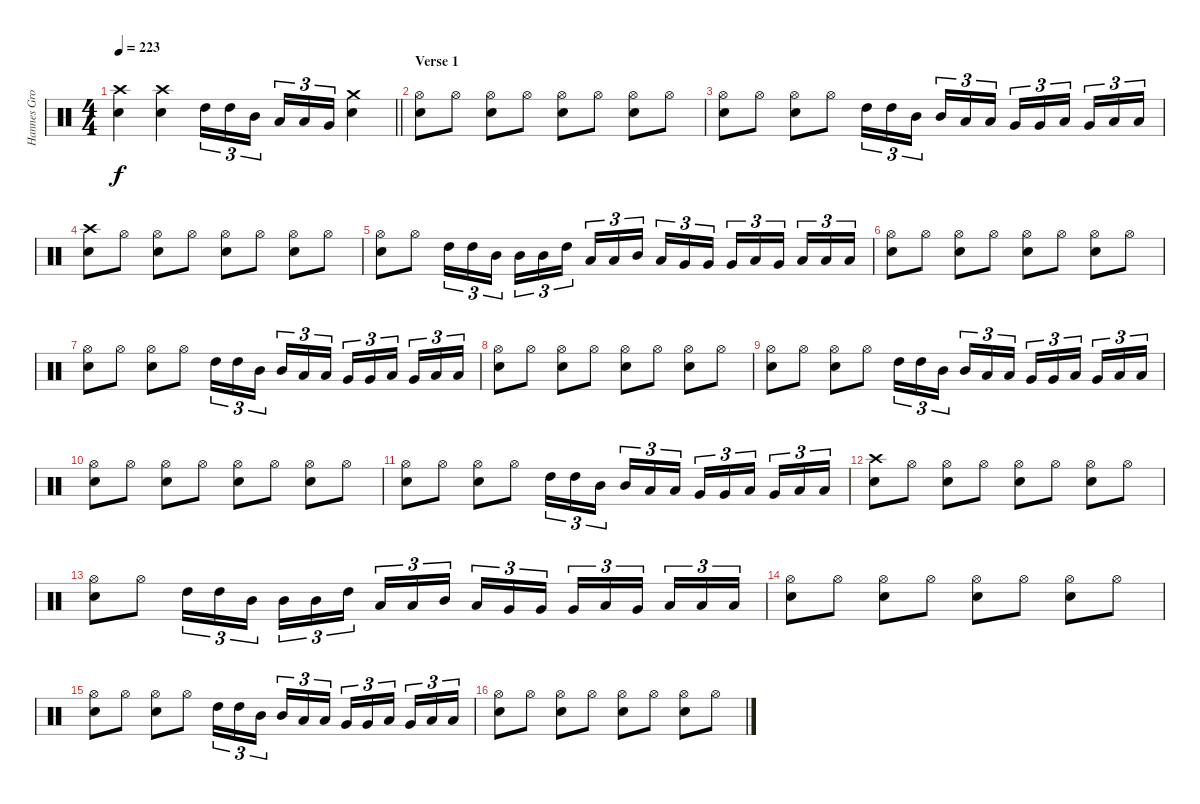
\track ("Hannes Grossmann" "Hannes Gro") {instrument percussion}
\staff {score}
\articulation defaults
\ts (4 4)
\tempo 223
\clef neutral
\barLineRight lightlight
\ks c
("Crash high (hit)" "Electric Snare (hit)").4{dy f} ("Crash high (hit)" "Electric Snare (hit)").4 "High Tom (hit)".16{tu (3 2)} "High Tom (hit)".16{tu (3 2)} "Mid Tom (hit)".16{tu (3 2) beam splitsecondary} "Low Tom (hit)".16{tu (3 2)} "Low Tom (hit)".16{tu (3 2)} "Very Low Tom (hit)".16{tu (3 2)} ("Crash medium (hit)" "Electric Snare (hit)").4 |
\section ("" "Verse 1")
("Hi-Hat (open)" "Electric Snare (hit)").8 "Hi-Hat (open)".8 ("Hi-Hat (open)" "Electric Snare (hit)").8 "Hi-Hat (open)".8 ("Hi-Hat (open)" "Electric Snare (hit)").8 "Hi-Hat (open)".8 ("Hi-Hat (open)" "Electric Snare (hit)").8 "Hi-Hat (open)".8 |
("Hi-Hat (open)" "Electric Snare (hit)").8 "Hi-Hat (open)".8 ("Hi-Hat (open)" "Electric Snare (hit)").8 "Hi-Hat (open)".8 "High Tom (hit)".16{tu (3 2)} "High Tom (hit)".16{tu (3 2)} "Mid Tom (hit)".16{tu (3 2) beam splitsecondary} "Mid Tom (hit)".16{tu (3 2)} "Low Tom (hit)".16{tu (3 2)} "Low Tom (hit)".16{tu (3 2)} "Very Low Tom (hit)".16{tu (3 2)} "Very Low Tom (hit)".16{tu (3 2)} "Low Tom (hit)".16{tu (3 2) beam splitsecondary} "Very Low Tom (hit)".16{tu (3 2)} "Low Floor Tom (hit)".16{tu (3 2)} "Low Floor Tom (hit)".16{tu (3 2)} |
("Crash high (hit)" "Electric Snare (hit)").8 "Hi-Hat (open)".8 ("Hi-Hat (open)" "Electric Snare (hit)").8 "Hi-Hat (open)".8 ("Hi-Hat (open)" "Electric Snare (hit)").8 "Hi-Hat (open)".8 ("Hi-Hat (open)" "Electric Snare (hit)").8 "Hi-Hat (open)".8 |
("Hi-Hat (open)" "Electric Snare (hit)").8 "Hi-Hat (open)".8 "High Tom (hit)".16{tu (3 2)} "High Tom (hit)".16{tu (3 2)} "Mid Tom (hit)".16{tu (3 2) beam splitsecondary} "Mid Tom (hit)".16{tu (3 2)} "Mid Tom (hit)".16{tu (3 2)} "High Tom (hit)".16{tu (3 2)} "Low Tom (hit)".16{tu (3 2)} "Low Tom (hit)".16{tu (3 2)} "Mid Tom (hit)".16{tu (3 2) beam splitsecondary} "Low Tom (hit)".16{tu (3 2)} "Very Low Tom (hit)".16{tu (3 2)} "Very Low Tom (hit)".16{tu (3 2)} "Very Low Tom (hit)".16{tu (3 2)} "Low Tom (hit)".16{tu (3 2)} "Very Low Tom (hit)".16{tu (3 2) beam splitsecondary} "Low Floor Tom (hit)".16{tu (3 2)} "Low Floor Tom (hit)".16{tu (3 2)} "Low Floor Tom (hit)".16{tu (3 2)} |
("Hi-Hat (open)" "Electric Snare (hit)").8 "Hi-Hat (open)".8 ("Hi-Hat (open)" "Electric Snare (hit)").8 "Hi-Hat (open)".8 ("Hi-Hat (open)" "Electric Snare (hit)").8 "Hi-Hat (open)".8 ("Hi-Hat (open)" "Electric Snare (hit)").8 "Hi-Hat (open)".8 |
("Hi-Hat (open)" "Electric Snare (hit)").8 "Hi-Hat (open)".8 ("Hi-Hat (open)" "Electric Snare (hit)").8 "Hi-Hat (open)".8 "High Tom (hit)".16{tu (3 2)} "High Tom (hit)".16{tu (3 2)} "Mid Tom (hit)".16{tu (3 2) beam splitsecondary} "Mid Tom (hit)".16{tu (3 2)} "Low Tom (hit)".16{tu (3 2)} "Low Tom (hit)".16{tu (3 2)} "Very Low Tom (hit)".16{tu (3 2)} "Very Low Tom (hit)".16{tu (3 2)} "Low Tom (hit)".16{tu (3 2) beam splitsecondary} "Very Low Tom (hit)".16{tu (3 2)} "Low Floor Tom (hit)".16{tu (3 2)} "Low Floor Tom (hit)".16{tu (3 2)} |
("Hi-Hat (open)" "Electric Snare (hit)").8 "Hi-Hat (open)".8 ("Hi-Hat (open)" "Electric Snare (hit)").8 "Hi-Hat (open)".8 ("Hi-Hat (open)" "Electric Snare (hit)").8 "Hi-Hat (open)".8 ("Hi-Hat (open)" "Electric Snare (hit)").8 "Hi-Hat (open)".8 |
("Hi-Hat (open)" "Electric Snare (hit)").8 "Hi-Hat (open)".8 ("Hi-Hat (open)" "Electric Snare (hit)").8 "Hi-Hat (open)".8 "High Tom (hit)".16{tu (3 2)} "High Tom (hit)".16{tu (3 2)} "Mid Tom (hit)".16{tu (3 2) beam splitsecondary} "Mid Tom (hit)".16{tu (3 2)} "Low Tom (hit)".16{tu (3 2)} "Low Tom (hit)".16{tu (3 2)} "Very Low Tom (hit)".16{tu (3 2)} "Very Low Tom (hit)".16{tu (3 2)} "Low Tom (hit)".16{tu (3 2) beam splitsecondary} "Very Low Tom (hit)".16{tu (3 2)} "Low Floor Tom (hit)".16{tu (3 2)} "Low Floor Tom (hit)".16{tu (3 2)} |
("Hi-Hat (open)" "Electric Snare (hit)").8 "Hi-Hat (open)".8 ("Hi-Hat (open)" "Electric Snare (hit)").8 "Hi-Hat (open)".8 ("Hi-Hat (open)" "Electric Snare (hit)").8 "Hi-Hat (open)".8 ("Hi-Hat (open)" "Electric Snare (hit)").8 "Hi-Hat (open)".8 |
("Hi-Hat (open)" "Electric Snare (hit)").8 "Hi-Hat (open)".8 ("Hi-Hat (open)" "Electric Snare (hit)").8 "Hi-Hat (open)".8 "High Tom (hit)".16{tu (3 2)} "High Tom (hit)".16{tu (3 2)} "Mid Tom (hit)".16{tu (3 2) beam splitsecondary} "Mid Tom (hit)".16{tu (3 2)} "Low Tom (hit)".16{tu (3 2)} "Low Tom (hit)".16{tu (3 2)} "Very Low Tom (hit)".16{tu (3 2)} "Very Low Tom (hit)".16{tu (3 2)} "Low Tom (hit)".16{tu (3 2) beam splitsecondary} "Very Low Tom (hit)".16{tu (3 2)} "Low Floor Tom (hit)".16{tu (3 2)} "Low Floor Tom (hit)".16{tu (3 2)} |
("Crash high (hit)" "Electric Snare (hit)").8 "Hi-Hat (open)".8 ("Hi-Hat (open)" "Electric Snare (hit)").8 "Hi-Hat (open)".8 ("Hi-Hat (open)" "Electric Snare (hit)").8 "Hi-Hat (open)".8 ("Hi-Hat (open)" "Electric Snare (hit)").8 "Hi-Hat (open)".8 |
("Hi-Hat (open)" "Electric Snare (hit)").8 "Hi-Hat (open)".8 "High Tom (hit)".16{tu (3 2)} "High Tom (hit)".16{tu (3 2)} "Mid Tom (hit)".16{tu (3 2) beam splitsecondary} "Mid Tom (hit)".16{tu (3 2)} "Mid Tom (hit)".16{tu (3 2)} "High Tom (hit)".16{tu (3 2)} "Low Tom (hit)".16{tu (3 2)} "Low Tom (hit)".16{tu (3 2)} "Mid Tom (hit)".16{tu (3 2) beam splitsecondary} "Low Tom (hit)".16{tu (3 2)} "Very Low Tom (hit)".16{tu (3 2)} "Very Low Tom (hit)".16{tu (3 2)} "Very Low Tom (hit)".16{tu (3 2)} "Low Tom (hit)".16{tu (3 2)} "Very Low Tom (hit)".16{tu (3 2) beam splitsecondary} "Low Floor Tom (hit)".16{tu (3 2)} "Low Floor Tom (hit)".16{tu (3 2)} "Low Floor Tom (hit)".16{tu (3 2)} |
("Hi-Hat (open)" "Electric Snare (hit)").8 "Hi-Hat (open)".8 ("Hi-Hat (open)" "Electric Snare (hit)").8 "Hi-Hat (open)".8 ("Hi-Hat (open)" "Electric Snare (hit)").8 "Hi-Hat (open)".8 ("Hi-Hat (open)" "Electric Snare (hit)").8 "Hi-Hat (open)".8 |
("Hi-Hat (open)" "Electric Snare (hit)").8 "Hi-Hat (open)".8 ("Hi-Hat (open)" "Electric Snare (hit)").8 "Hi-Hat (open)".8 "High Tom (hit)".16{tu (3 2)} "High Tom (hit)".16{tu (3 2)} "Mid Tom (hit)".16{tu (3 2) beam splitsecondary} "Mid Tom (hit)".16{tu (3 2)} "Low Tom (hit)".16{tu (3 2)} "Low Tom (hit)".16{tu (3 2)} "Very Low Tom (hit)".16{tu (3 2)} "Very Low Tom (hit)".16{tu (3 2)} "Low Tom (hit)".16{tu (3 2) beam splitsecondary} "Very Low Tom (hit)".16{tu (3 2)} "Low Floor Tom (hit)".16{tu (3 2)} "Low Floor Tom (hit)".16{tu (3 2)} |
("Hi-Hat (open)" "Electric Snare (hit)").8 "Hi-Hat (open)".8 ("Hi-Hat (open)" "Electric Snare (hit)").8 "Hi-Hat (open)".8 ("Hi-Hat (open)" "Electric Snare (hit)").8 "Hi-Hat (open)".8 ("Hi-Hat (open)" "Electric Snare (hit)").8 "Hi-Hat (open)".8
